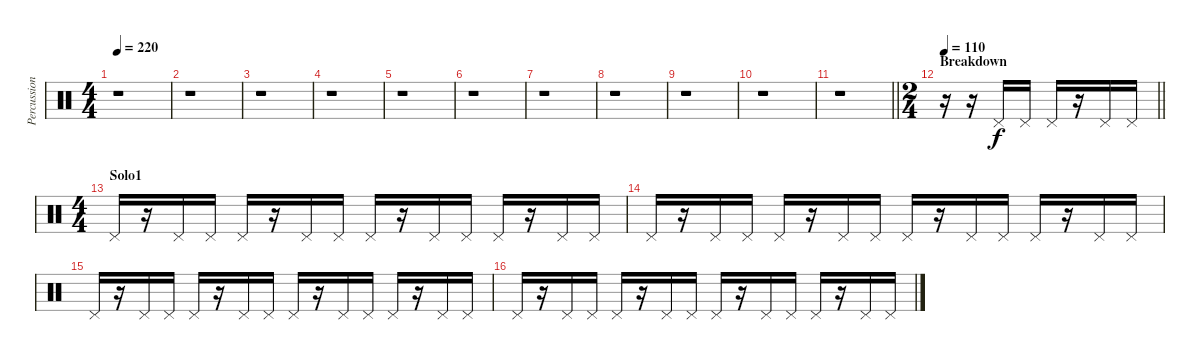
\track ("Percussion" "Percussion") {instrument percussion}
\staff {score}
\articulation defaults
\ts (4 4)
\tempo 220
\clef neutral
\ks c
r.1{dy f} |
r.1 |
r.1 |
r.1 |
r.1 |
r.1 |
r.1 |
r.1 |
r.1 |
r.1 |
\barLineRight lightlight
r.1 |
\ts (2 4)
\section ("" "Breakdown")
\tempo 110
\barLineRight lightlight
r.16{balance 16} r.16 "Pedal Hi-Hat (hit)".16 "Pedal Hi-Hat (hit)".16 "Pedal Hi-Hat (hit)".16 r.16 "Pedal Hi-Hat (hit)".16 "Pedal Hi-Hat (hit)".16 |
\ts (4 4)
\section ("" "Solo1")
"Pedal Hi-Hat (hit)".16 r.16 "Pedal Hi-Hat (hit)".16 "Pedal Hi-Hat (hit)".16 "Pedal Hi-Hat (hit)".16 r.16 "Pedal Hi-Hat (hit)".16 "Pedal Hi-Hat (hit)".16 "Pedal Hi-Hat (hit)".16 r.16 "Pedal Hi-Hat (hit)".16 "Pedal Hi-Hat (hit)".16 "Pedal Hi-Hat (hit)".16 r.16 "Pedal Hi-Hat (hit)".16 "Pedal Hi-Hat (hit)".16 |
"Pedal Hi-Hat (hit)".16{balance 8} r.16 "Pedal Hi-Hat (hit)".16 "Pedal Hi-Hat (hit)".16 "Pedal Hi-Hat (hit)".16 r.16 "Pedal Hi-Hat (hit)".16 "Pedal Hi-Hat (hit)".16 "Pedal Hi-Hat (hit)".16 r.16 "Pedal Hi-Hat (hit)".16 "Pedal Hi-Hat (hit)".16 "Pedal Hi-Hat (hit)".16 r.16 "Pedal Hi-Hat (hit)".16 "Pedal Hi-Hat (hit)".16 |
"Pedal Hi-Hat (hit)".16 r.16 "Pedal Hi-Hat (hit)".16 "Pedal Hi-Hat (hit)".16 "Pedal Hi-Hat (hit)".16 r.16 "Pedal Hi-Hat (hit)".16 "Pedal Hi-Hat (hit)".16 "Pedal Hi-Hat (hit)".16 r.16 "Pedal Hi-Hat (hit)".16 "Pedal Hi-Hat (hit)".16 "Pedal Hi-Hat (hit)".16 r.16 "Pedal Hi-Hat (hit)".16 "Pedal Hi-Hat (hit)".16 |
"Pedal Hi-Hat (hit)".16 r.16 "Pedal Hi-Hat (hit)".16 "Pedal Hi-Hat (hit)".16 "Pedal Hi-Hat (hit)".16 r.16 "Pedal Hi-Hat (hit)".16 "Pedal Hi-Hat (hit)".16 "Pedal Hi-Hat (hit)".16 r.16 "Pedal Hi-Hat (hit)".16 "Pedal Hi-Hat (hit)".16 "Pedal Hi-Hat (hit)".16 r.16 "Pedal Hi-Hat (hit)".16 "Pedal Hi-Hat (hit)".16
